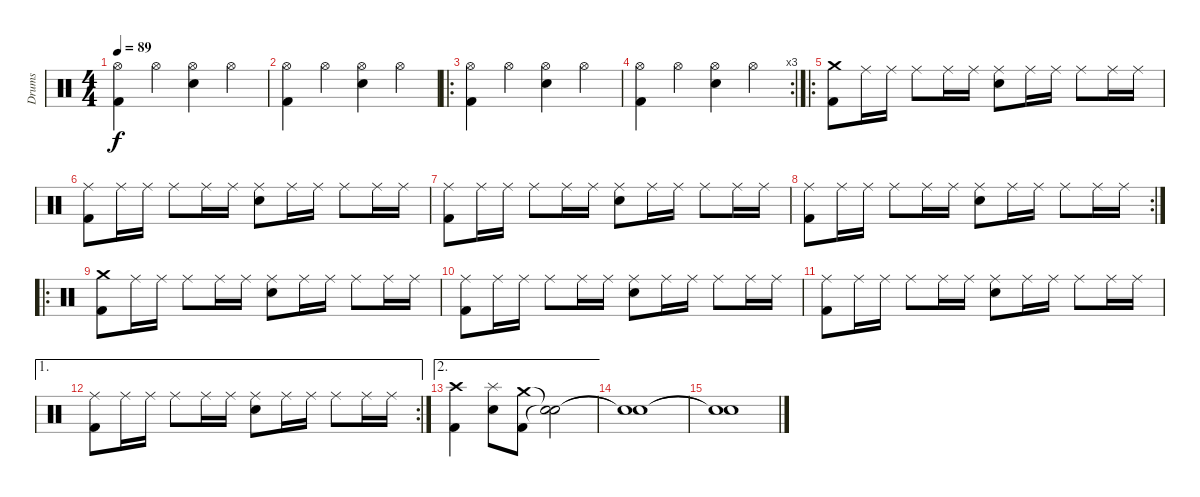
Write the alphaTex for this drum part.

\track ("Drums" "Drums") {instrument percussion}
\staff {score}
\articulation defaults
\ts (4 4)
\tempo 89
\clef neutral
\ks c
("Hi-Hat (open)" "Kick (hit) 2").4{dy f} "Hi-Hat (open)".4 ("Hi-Hat (open)" "Snare (hit) 2").4 "Hi-Hat (open)".4 |
("Hi-Hat (open)" "Kick (hit) 2").4 "Hi-Hat (open)".4 ("Hi-Hat (open)" "Snare (hit) 2").4 "Hi-Hat (open)".4 |
\ro
("Hi-Hat (open)" "Kick (hit) 2").4 "Hi-Hat (open)".4 ("Hi-Hat (open)" "Snare (hit) 2").4 "Hi-Hat (open)".4 |
\rc 3
("Hi-Hat (open)" "Kick (hit) 2").4 "Hi-Hat (open)".4 ("Hi-Hat (open)" "Snare (hit) 2").4 "Hi-Hat (open)".4 |
\ro
("Crash medium (hit)" "Kick (hit) 2").8 "Ride (middle)".16 "Ride (middle)".16 "Ride (middle)".8 "Ride (middle)".16 "Ride (middle)".16 ("Ride (middle)" "Snare (hit) 2").8 "Ride (middle)".16 "Ride (middle)".16 "Ride (middle)".8 "Ride (middle)".16 "Ride (middle)".16 |
("Ride (middle)" "Kick (hit) 2").8 "Ride (middle)".16 "Ride (middle)".16 "Ride (middle)".8 "Ride (middle)".16 "Ride (middle)".16 ("Ride (middle)" "Snare (hit) 2").8 "Ride (middle)".16 "Ride (middle)".16 "Ride (middle)".8 "Ride (middle)".16 "Ride (middle)".16 |
("Ride (middle)" "Kick (hit) 2").8 "Ride (middle)".16 "Ride (middle)".16 "Ride (middle)".8 "Ride (middle)".16 "Ride (middle)".16 ("Ride (middle)" "Snare (hit) 2").8 "Ride (middle)".16 "Ride (middle)".16 "Ride (middle)".8 "Ride (middle)".16 "Ride (middle)".16 |
\rc 2
("Ride (middle)" "Kick (hit) 2").8 "Ride (middle)".16 "Ride (middle)".16 "Ride (middle)".8 "Ride (middle)".16 "Ride (middle)".16 ("Ride (middle)" "Snare (hit) 2").8 "Ride (middle)".16 "Ride (middle)".16 "Ride (middle)".8 "Ride (middle)".16 "Ride (middle)".16 |
\ro
("Crash medium (hit)" "Kick (hit) 2").8 "Ride (middle)".16 "Ride (middle)".16 "Ride (middle)".8 "Ride (middle)".16 "Ride (middle)".16 ("Ride (middle)" "Snare (hit) 2").8 "Ride (middle)".16 "Ride (middle)".16 "Ride (middle)".8 "Ride (middle)".16 "Ride (middle)".16 |
("Ride (middle)" "Kick (hit) 2").8 "Ride (middle)".16 "Ride (middle)".16 "Ride (middle)".8 "Ride (middle)".16 "Ride (middle)".16 ("Ride (middle)" "Snare (hit) 2").8 "Ride (middle)".16 "Ride (middle)".16 "Ride (middle)".8 "Ride (middle)".16 "Ride (middle)".16 |
("Ride (middle)" "Kick (hit) 2").8 "Ride (middle)".16 "Ride (middle)".16 "Ride (middle)".8 "Ride (middle)".16 "Ride (middle)".16 ("Ride (middle)" "Snare (hit) 2").8 "Ride (middle)".16 "Ride (middle)".16 "Ride (middle)".8 "Ride (middle)".16 "Ride (middle)".16 |
\ae 1
\rc 2
("Ride (middle)" "Kick (hit) 2").8 "Ride (middle)".16 "Ride (middle)".16 "Ride (middle)".8 "Ride (middle)".16 "Ride (middle)".16 ("Ride (middle)" "Snare (hit) 2").8 "Ride (middle)".16 "Ride (middle)".16 "Ride (middle)".8 "Ride (middle)".16 "Ride (middle)".16 |
\ae 2
("Crash high (hit)" "Kick (hit) 2").4 ("Splash (hit)" "Snare (hit) 2").8 ("Crash medium (hit)" "Kick (hit) 2").8 ("Snare (hit)"{t} "Snare (hit)"{t}).2 |
("Snare (hit)"{t} "Snare (hit)"{t}).1 |
("Snare (hit)"{t} "Snare (hit)"{t}).1
